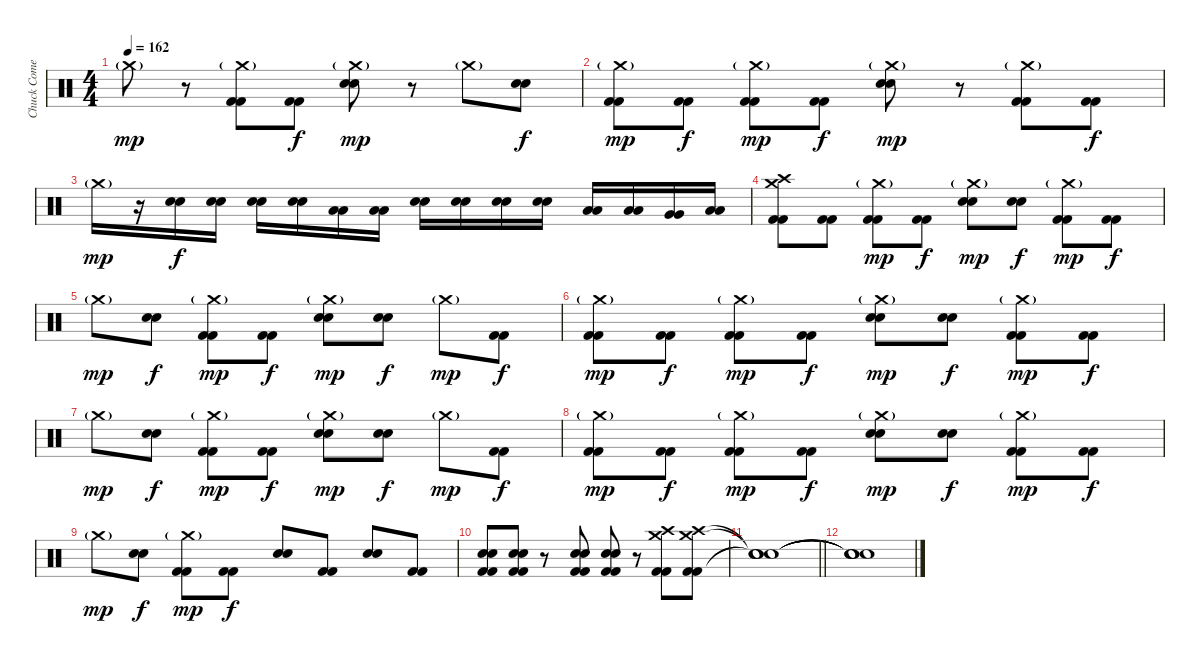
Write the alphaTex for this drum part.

\track ("Chuck Comeau" "Chuck Come") {instrument percussion}
\staff {score}
\articulation defaults
\ts (4 4)
\tempo 162
\clef neutral
\ks c "Crash medium (hit)"{g}.8{dy mp}
r.8 ("Crash medium (hit)"{g} "Kick (hit) 2" "Kick (hit) 2").8 ("Kick (hit) 2" "Kick (hit) 2").8{dy f} ("Crash medium (hit)"{g} "Snare (hit) 2" "Snare (hit) 2").8{dy mp} r.8 "Crash medium (hit)"{g}.8 ("Snare (hit) 2" "Snare (hit) 2").8{dy f} |
("Crash medium (hit)"{g} "Kick (hit) 2" "Kick (hit) 2").8{dy mp} ("Kick (hit) 2" "Kick (hit) 2").8{dy f} ("Crash medium (hit)"{g} "Kick (hit) 2" "Kick (hit) 2").8{dy mp} ("Kick (hit) 2" "Kick (hit) 2").8{dy f} ("Crash medium (hit)"{g} "Snare (hit) 2" "Snare (hit) 2").8{dy mp} r.8 ("Crash medium (hit)"{g} "Kick (hit) 2" "Kick (hit) 2").8 ("Kick (hit) 2" "Kick (hit) 2").8{dy f} |
"Crash medium (hit)"{g}.16{dy mp} r.16 ("Snare (hit) 2" "Snare (hit) 2").16{dy f} ("Snare (hit) 2" "Snare (hit) 2").16 ("Snare (hit) 2" "Snare (hit) 2").16 ("Snare (hit) 2" "Snare (hit) 2").16 ("Low Tom (hit)" "Low Tom (hit)").16 ("Low Tom (hit)" "Low Tom (hit)").16 ("Snare (hit) 2" "Snare (hit) 2").16 ("Snare (hit) 2" "Snare (hit) 2").16 ("Snare (hit) 2" "Snare (hit) 2").16 ("Snare (hit) 2" "Snare (hit) 2").16 ("Low Tom (hit)" "Low Tom (hit)").16 ("Low Tom (hit)" "Low Tom (hit)").16 ("Very Low Tom (hit)" "Very Low Tom (hit)").16 ("Low Floor Tom (hit)" "Low Floor Tom (hit)").16 |
("Crash medium (hit)" "Crash high (hit)" "Kick (hit) 2" "Kick (hit) 2").8 ("Kick (hit) 2" "Kick (hit) 2").8 ("Crash medium (hit)"{g} "Kick (hit) 2" "Kick (hit) 2").8{dy mp} ("Kick (hit) 2" "Kick (hit) 2").8{dy f} ("Crash medium (hit)"{g} "Snare (hit) 2" "Snare (hit) 2").8{dy mp} ("Snare (hit) 2" "Snare (hit) 2").8{dy f} ("Crash medium (hit)"{g} "Kick (hit) 2" "Kick (hit) 2").8{dy mp} ("Kick (hit) 2" "Kick (hit) 2").8{dy f} |
"Crash medium (hit)"{g}.8{dy mp} ("Snare (hit) 2" "Snare (hit) 2").8{dy f} ("Crash medium (hit)"{g} "Kick (hit) 2" "Kick (hit) 2").8{dy mp} ("Kick (hit) 2" "Kick (hit) 2").8{dy f} ("Crash medium (hit)"{g} "Snare (hit) 2" "Snare (hit) 2").8{dy mp} ("Snare (hit) 2" "Snare (hit) 2").8{dy f} "Crash medium (hit)"{g}.8{dy mp} ("Kick (hit) 2" "Kick (hit) 2").8{dy f} |
("Crash medium (hit)"{g} "Kick (hit) 2" "Kick (hit) 2").8{dy mp} ("Kick (hit) 2" "Kick (hit) 2").8{dy f} ("Crash medium (hit)"{g} "Kick (hit) 2" "Kick (hit) 2").8{dy mp} ("Kick (hit) 2" "Kick (hit) 2").8{dy f} ("Crash medium (hit)"{g} "Snare (hit) 2" "Snare (hit) 2").8{dy mp} ("Snare (hit) 2" "Snare (hit) 2").8{dy f} ("Crash medium (hit)"{g} "Kick (hit) 2" "Kick (hit) 2").8{dy mp} ("Kick (hit) 2" "Kick (hit) 2").8{dy f} |
"Crash medium (hit)"{g}.8{dy mp} ("Snare (hit) 2" "Snare (hit) 2").8{dy f} ("Crash medium (hit)"{g} "Kick (hit) 2" "Kick (hit) 2").8{dy mp} ("Kick (hit) 2" "Kick (hit) 2").8{dy f} ("Crash medium (hit)"{g} "Snare (hit) 2" "Snare (hit) 2").8{dy mp} ("Snare (hit) 2" "Snare (hit) 2").8{dy f} "Crash medium (hit)"{g}.8{dy mp} ("Kick (hit) 2" "Kick (hit) 2").8{dy f} |
("Crash medium (hit)"{g} "Kick (hit) 2" "Kick (hit) 2").8{dy mp} ("Kick (hit) 2" "Kick (hit) 2").8{dy f} ("Crash medium (hit)"{g} "Kick (hit) 2" "Kick (hit) 2").8{dy mp} ("Kick (hit) 2" "Kick (hit) 2").8{dy f} ("Crash medium (hit)"{g} "Snare (hit) 2" "Snare (hit) 2").8{dy mp} ("Snare (hit) 2" "Snare (hit) 2").8{dy f} ("Crash medium (hit)"{g} "Kick (hit) 2" "Kick (hit) 2").8{dy mp} ("Kick (hit) 2" "Kick (hit) 2").8{dy f} |
"Crash medium (hit)"{g}.8{dy mp} ("Snare (hit) 2" "Snare (hit) 2").8{dy f} ("Crash medium (hit)"{g} "Kick (hit) 2" "Kick (hit) 2").8{dy mp} ("Kick (hit) 2" "Kick (hit) 2").8{dy f} ("Snare (hit) 2"{tr (38 16)} "Snare (hit) 2").8 ("Kick (hit) 2" "Kick (hit) 2").8 ("Snare (hit) 2"{tr (38 16)} "Snare (hit) 2").8 ("Kick (hit) 2" "Kick (hit) 2").8 |
("Snare (hit) 2"{tr (38 16)} "Snare (hit) 2" "Kick (hit) 2" "Kick (hit) 2").8 ("Snare (hit) 2"{tr (38 16)} "Snare (hit) 2" "Kick (hit) 2" "Kick (hit) 2").8 r.8 ("Snare (hit) 2"{tr (38 16)} "Snare (hit) 2" "Kick (hit) 2" "Kick (hit) 2").8 ("Snare (hit) 2"{tr (38 16)} "Snare (hit) 2" "Kick (hit) 2" "Kick (hit) 2").8 r.8 ("Crash medium (hit)" "Crash high (hit)" "Kick (hit) 2" "Kick (hit) 2").8 ("Crash medium (hit)" "Crash high (hit)" "Kick (hit) 2" "Kick (hit) 2").8 |
\barLineRight lightlight
("Snare (hit)"{t} "Snare (hit)"{t} "Snare (hit)"{t} "Snare (hit)"{t}).1 |
("Snare (hit)"{t} "Snare (hit)"{t} "Snare (hit)"{t} "Snare (hit)"{t}).1
